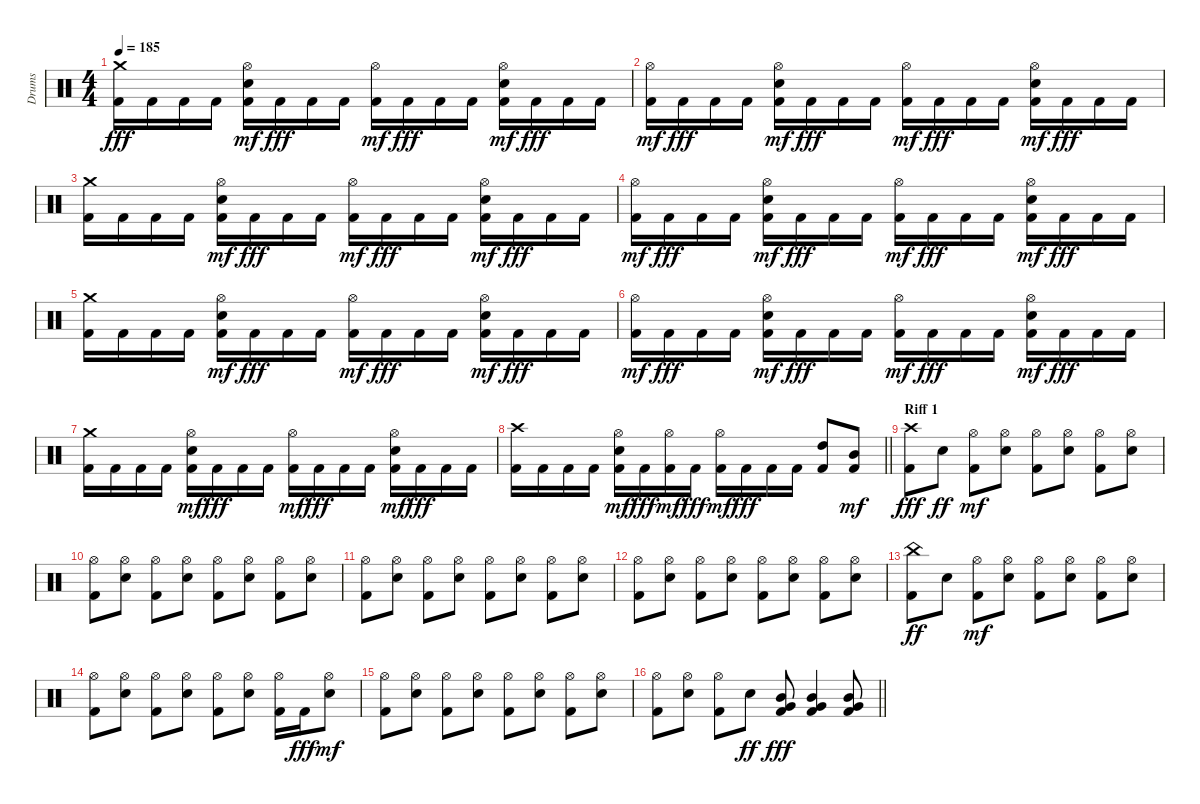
\track ("Drums" "Drums") {instrument percussion}
\staff {score}
\articulation defaults
\ts (4 4)
\tempo 185
\clef neutral
\ks c
("Kick (hit) 2" "Crash medium (hit)").16{dy fff} "Kick (hit) 2".16 "Kick (hit) 2".16 "Kick (hit) 2".16 ("Kick (hit) 2" "Snare (hit) 2" "Hi-Hat (open)").16{dy mf} "Kick (hit) 2".16{dy fff} "Kick (hit) 2".16 "Kick (hit) 2".16 ("Kick (hit) 2" "Hi-Hat (open)").16{dy mf} "Kick (hit) 2".16{dy fff} "Kick (hit) 2".16 "Kick (hit) 2".16 ("Kick (hit) 2" "Snare (hit) 2" "Hi-Hat (open)").16{dy mf} "Kick (hit) 2".16{dy fff} "Kick (hit) 2".16 "Kick (hit) 2".16 |
("Kick (hit) 2" "Hi-Hat (open)").16{dy mf} "Kick (hit) 2".16{dy fff} "Kick (hit) 2".16 "Kick (hit) 2".16 ("Kick (hit) 2" "Snare (hit) 2" "Hi-Hat (open)").16{dy mf} "Kick (hit) 2".16{dy fff} "Kick (hit) 2".16 "Kick (hit) 2".16 ("Kick (hit) 2" "Hi-Hat (open)").16{dy mf} "Kick (hit) 2".16{dy fff} "Kick (hit) 2".16 "Kick (hit) 2".16 ("Kick (hit) 2" "Snare (hit) 2" "Hi-Hat (open)").16{dy mf} "Kick (hit) 2".16{dy fff} "Kick (hit) 2".16 "Kick (hit) 2".16 |
("Kick (hit) 2" "Crash medium (hit)").16 "Kick (hit) 2".16 "Kick (hit) 2".16 "Kick (hit) 2".16 ("Kick (hit) 2" "Snare (hit) 2" "Hi-Hat (open)").16{dy mf} "Kick (hit) 2".16{dy fff} "Kick (hit) 2".16 "Kick (hit) 2".16 ("Kick (hit) 2" "Hi-Hat (open)").16{dy mf} "Kick (hit) 2".16{dy fff} "Kick (hit) 2".16 "Kick (hit) 2".16 ("Kick (hit) 2" "Snare (hit) 2" "Hi-Hat (open)").16{dy mf} "Kick (hit) 2".16{dy fff} "Kick (hit) 2".16 "Kick (hit) 2".16 |
("Kick (hit) 2" "Hi-Hat (open)").16{dy mf} "Kick (hit) 2".16{dy fff} "Kick (hit) 2".16 "Kick (hit) 2".16 ("Kick (hit) 2" "Snare (hit) 2" "Hi-Hat (open)").16{dy mf} "Kick (hit) 2".16{dy fff} "Kick (hit) 2".16 "Kick (hit) 2".16 ("Kick (hit) 2" "Hi-Hat (open)").16{dy mf} "Kick (hit) 2".16{dy fff} "Kick (hit) 2".16 "Kick (hit) 2".16 ("Kick (hit) 2" "Snare (hit) 2" "Hi-Hat (open)").16{dy mf} "Kick (hit) 2".16{dy fff} "Kick (hit) 2".16 "Kick (hit) 2".16 |
("Kick (hit) 2" "Crash medium (hit)").16 "Kick (hit) 2".16 "Kick (hit) 2".16 "Kick (hit) 2".16 ("Kick (hit) 2" "Snare (hit) 2" "Hi-Hat (open)").16{dy mf} "Kick (hit) 2".16{dy fff} "Kick (hit) 2".16 "Kick (hit) 2".16 ("Kick (hit) 2" "Hi-Hat (open)").16{dy mf} "Kick (hit) 2".16{dy fff} "Kick (hit) 2".16 "Kick (hit) 2".16 ("Kick (hit) 2" "Snare (hit) 2" "Hi-Hat (open)").16{dy mf} "Kick (hit) 2".16{dy fff} "Kick (hit) 2".16 "Kick (hit) 2".16 |
("Kick (hit) 2" "Hi-Hat (open)").16{dy mf} "Kick (hit) 2".16{dy fff} "Kick (hit) 2".16 "Kick (hit) 2".16 ("Kick (hit) 2" "Snare (hit) 2" "Hi-Hat (open)").16{dy mf} "Kick (hit) 2".16{dy fff} "Kick (hit) 2".16 "Kick (hit) 2".16 ("Kick (hit) 2" "Hi-Hat (open)").16{dy mf} "Kick (hit) 2".16{dy fff} "Kick (hit) 2".16 "Kick (hit) 2".16 ("Kick (hit) 2" "Snare (hit) 2" "Hi-Hat (open)").16{dy mf} "Kick (hit) 2".16{dy fff} "Kick (hit) 2".16 "Kick (hit) 2".16 |
("Kick (hit) 2" "Crash medium (hit)").16 "Kick (hit) 2".16 "Kick (hit) 2".16 "Kick (hit) 2".16 ("Kick (hit) 2" "Snare (hit) 2" "Hi-Hat (open)").16{dy mf} "Kick (hit) 2".16{dy fff} "Kick (hit) 2".16 "Kick (hit) 2".16 ("Kick (hit) 2" "Hi-Hat (open)").16{dy mf} "Kick (hit) 2".16{dy fff} "Kick (hit) 2".16 "Kick (hit) 2".16 ("Kick (hit) 2" "Snare (hit) 2" "Hi-Hat (open)").16{dy mf} "Kick (hit) 2".16{dy fff} "Kick (hit) 2".16 "Kick (hit) 2".16 |
\barLineRight lightlight
("Kick (hit) 2" "Crash high (hit)").16 "Kick (hit) 2".16 "Kick (hit) 2".16 "Kick (hit) 2".16 ("Kick (hit) 2" "Snare (hit) 2" "Hi-Hat (open)").16{dy mf} "Kick (hit) 2".16{dy fff} ("Kick (hit) 2" "Hi-Hat (open)").16{dy mf} "Kick (hit) 2".16{dy fff} ("Kick (hit) 2" "Hi-Hat (open)").16{dy mf} "Kick (hit) 2".16{dy fff} "Kick (hit) 2".16 "Kick (hit) 2".16 ("Kick (hit) 2" "High Tom (hit)").8 ("Kick (hit) 2" "Mid Tom (hit)").8{dy mf} |
\section ("" "Riff 1")
("Kick (hit) 2" "Crash high (hit)").8{dy fff} "Snare (hit) 2".8{dy ff} ("Kick (hit) 2" "Hi-Hat (open)").8{dy mf} ("Snare (hit) 2" "Hi-Hat (open)").8 ("Kick (hit) 2" "Hi-Hat (open)").8 ("Snare (hit) 2" "Hi-Hat (open)").8 ("Kick (hit) 2" "Hi-Hat (open)").8 ("Snare (hit) 2" "Hi-Hat (open)").8 |
("Kick (hit) 2" "Hi-Hat (open)").8 ("Snare (hit) 2" "Hi-Hat (open)").8 ("Kick (hit) 2" "Hi-Hat (open)").8 ("Snare (hit) 2" "Hi-Hat (open)").8 ("Kick (hit) 2" "Hi-Hat (open)").8 ("Snare (hit) 2" "Hi-Hat (open)").8 ("Kick (hit) 2" "Hi-Hat (open)").8 ("Snare (hit) 2" "Hi-Hat (open)").8 |
("Kick (hit) 2" "Hi-Hat (open)").8 ("Snare (hit) 2" "Hi-Hat (open)").8 ("Kick (hit) 2" "Hi-Hat (open)").8 ("Snare (hit) 2" "Hi-Hat (open)").8 ("Kick (hit) 2" "Hi-Hat (open)").8 ("Snare (hit) 2" "Hi-Hat (open)").8 ("Kick (hit) 2" "Hi-Hat (open)").8 ("Snare (hit) 2" "Hi-Hat (open)").8 |
("Kick (hit) 2" "Hi-Hat (open)").8 ("Snare (hit) 2" "Hi-Hat (open)").8 ("Kick (hit) 2" "Hi-Hat (open)").8 ("Snare (hit) 2" "Hi-Hat (open)").8 ("Kick (hit) 2" "Hi-Hat (open)").8 ("Snare (hit) 2" "Hi-Hat (open)").8 ("Kick (hit) 2" "Hi-Hat (open)").8 ("Snare (hit) 2" "Hi-Hat (open)").8 |
("Kick (hit) 2" "China (hit)").8{dy ff} "Snare (hit) 2".8 ("Kick (hit) 2" "Hi-Hat (open)").8{dy mf} ("Snare (hit) 2" "Hi-Hat (open)").8 ("Kick (hit) 2" "Hi-Hat (open)").8 ("Snare (hit) 2" "Hi-Hat (open)").8 ("Kick (hit) 2" "Hi-Hat (open)").8 ("Snare (hit) 2" "Hi-Hat (open)").8 |
("Kick (hit) 2" "Hi-Hat (open)").8 ("Snare (hit) 2" "Hi-Hat (open)").8 ("Kick (hit) 2" "Hi-Hat (open)").8 ("Snare (hit) 2" "Hi-Hat (open)").8 ("Kick (hit) 2" "Hi-Hat (open)").8 ("Snare (hit) 2" "Hi-Hat (open)").8 ("Kick (hit) 2" "Hi-Hat (open)").16 "Kick (hit) 2".16{dy fff} ("Snare (hit) 2" "Hi-Hat (open)").8{dy mf} |
("Kick (hit) 2" "Hi-Hat (open)").8 ("Snare (hit) 2" "Hi-Hat (open)").8 ("Kick (hit) 2" "Hi-Hat (open)").8 ("Snare (hit) 2" "Hi-Hat (open)").8 ("Kick (hit) 2" "Hi-Hat (open)").8 ("Snare (hit) 2" "Hi-Hat (open)").8 ("Kick (hit) 2" "Hi-Hat (open)").8 ("Snare (hit) 2" "Hi-Hat (open)").8 |
\barLineRight lightlight
("Kick (hit) 2" "Hi-Hat (open)").8 ("Snare (hit) 2" "Hi-Hat (open)").8 ("Kick (hit) 2" "Hi-Hat (open)").8 "Snare (hit) 2".8{dy ff} ("Kick (hit) 2" "Very Low Tom (hit)" "Mid Tom (hit)").8{dy fff} ("Kick (hit) 2" "Very Low Tom (hit)" "Mid Tom (hit)").4 ("Kick (hit) 2" "Very Low Tom (hit)" "Mid Tom (hit)").8
